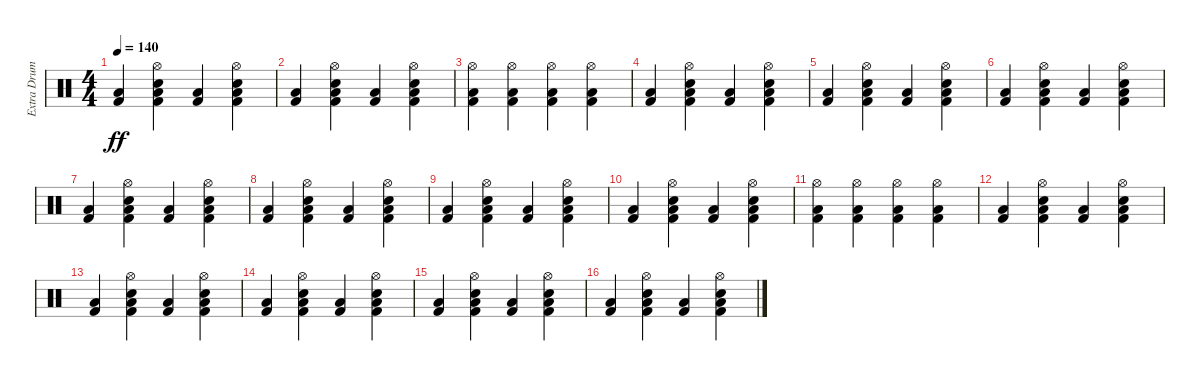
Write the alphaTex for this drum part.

\track ("Extra Drums" "Extra Drum") {instrument percussion}
\staff {score}
\articulation defaults
\ts (4 4)
\tempo 140
\clef neutral
\ks c
("Low Floor Tom (hit)" "Kick (hit) 2").4{dy ff} ("Hi-Hat (open)" "Electric Snare (hit)" "Low Floor Tom (hit)" "Kick (hit) 2").4 ("Low Floor Tom (hit)" "Kick (hit) 2").4 ("Hi-Hat (open)" "Electric Snare (hit)" "Low Floor Tom (hit)" "Kick (hit) 2").4 |
("Low Floor Tom (hit)" "Kick (hit) 2").4 ("Hi-Hat (open)" "Electric Snare (hit)" "Low Floor Tom (hit)" "Kick (hit) 2").4 ("Low Floor Tom (hit)" "Kick (hit) 2").4 ("Hi-Hat (open)" "Electric Snare (hit)" "Low Floor Tom (hit)" "Kick (hit) 2").4 |
("Hi-Hat (open)" "Low Floor Tom (hit)" "Kick (hit) 2").4 ("Hi-Hat (open)" "Low Floor Tom (hit)" "Kick (hit) 2").4 ("Hi-Hat (open)" "Low Floor Tom (hit)" "Kick (hit) 2").4 ("Hi-Hat (open)" "Low Floor Tom (hit)" "Kick (hit) 2").4 |
("Low Floor Tom (hit)" "Kick (hit) 2").4 ("Hi-Hat (open)" "Electric Snare (hit)" "Low Floor Tom (hit)" "Kick (hit) 2").4 ("Low Floor Tom (hit)" "Kick (hit) 2").4 ("Hi-Hat (open)" "Electric Snare (hit)" "Low Floor Tom (hit)" "Kick (hit) 2").4 |
("Low Floor Tom (hit)" "Kick (hit) 2").4 ("Hi-Hat (open)" "Electric Snare (hit)" "Low Floor Tom (hit)" "Kick (hit) 2").4 ("Low Floor Tom (hit)" "Kick (hit) 2").4 ("Hi-Hat (open)" "Electric Snare (hit)" "Low Floor Tom (hit)" "Kick (hit) 2").4 |
("Low Floor Tom (hit)" "Kick (hit) 2").4 ("Hi-Hat (open)" "Electric Snare (hit)" "Low Floor Tom (hit)" "Kick (hit) 2").4 ("Low Floor Tom (hit)" "Kick (hit) 2").4 ("Hi-Hat (open)" "Electric Snare (hit)" "Low Floor Tom (hit)" "Kick (hit) 2").4 |
("Low Floor Tom (hit)" "Kick (hit) 2").4 ("Hi-Hat (open)" "Electric Snare (hit)" "Low Floor Tom (hit)" "Kick (hit) 2").4 ("Low Floor Tom (hit)" "Kick (hit) 2").4 ("Hi-Hat (open)" "Electric Snare (hit)" "Low Floor Tom (hit)" "Kick (hit) 2").4 |
("Low Floor Tom (hit)" "Kick (hit) 2").4 ("Hi-Hat (open)" "Electric Snare (hit)" "Low Floor Tom (hit)" "Kick (hit) 2").4 ("Low Floor Tom (hit)" "Kick (hit) 2").4 ("Hi-Hat (open)" "Electric Snare (hit)" "Low Floor Tom (hit)" "Kick (hit) 2").4 |
("Low Floor Tom (hit)" "Kick (hit) 2").4 ("Hi-Hat (open)" "Electric Snare (hit)" "Low Floor Tom (hit)" "Kick (hit) 2").4 ("Low Floor Tom (hit)" "Kick (hit) 2").4 ("Hi-Hat (open)" "Electric Snare (hit)" "Low Floor Tom (hit)" "Kick (hit) 2").4 |
("Low Floor Tom (hit)" "Kick (hit) 2").4 ("Hi-Hat (open)" "Electric Snare (hit)" "Low Floor Tom (hit)" "Kick (hit) 2").4 ("Low Floor Tom (hit)" "Kick (hit) 2").4 ("Hi-Hat (open)" "Electric Snare (hit)" "Low Floor Tom (hit)" "Kick (hit) 2").4 |
("Hi-Hat (open)" "Low Floor Tom (hit)" "Kick (hit) 2").4 ("Hi-Hat (open)" "Low Floor Tom (hit)" "Kick (hit) 2").4 ("Hi-Hat (open)" "Low Floor Tom (hit)" "Kick (hit) 2").4 ("Hi-Hat (open)" "Low Floor Tom (hit)" "Kick (hit) 2").4 |
("Low Floor Tom (hit)" "Kick (hit) 2").4 ("Hi-Hat (open)" "Electric Snare (hit)" "Low Floor Tom (hit)" "Kick (hit) 2").4 ("Low Floor Tom (hit)" "Kick (hit) 2").4 ("Hi-Hat (open)" "Electric Snare (hit)" "Low Floor Tom (hit)" "Kick (hit) 2").4 |
("Low Floor Tom (hit)" "Kick (hit) 2").4 ("Hi-Hat (open)" "Electric Snare (hit)" "Low Floor Tom (hit)" "Kick (hit) 2").4 ("Low Floor Tom (hit)" "Kick (hit) 2").4 ("Hi-Hat (open)" "Electric Snare (hit)" "Low Floor Tom (hit)" "Kick (hit) 2").4 |
("Low Floor Tom (hit)" "Kick (hit) 2").4 ("Hi-Hat (open)" "Electric Snare (hit)" "Low Floor Tom (hit)" "Kick (hit) 2").4 ("Low Floor Tom (hit)" "Kick (hit) 2").4 ("Hi-Hat (open)" "Electric Snare (hit)" "Low Floor Tom (hit)" "Kick (hit) 2").4 |
("Low Floor Tom (hit)" "Kick (hit) 2").4 ("Hi-Hat (open)" "Electric Snare (hit)" "Low Floor Tom (hit)" "Kick (hit) 2").4 ("Low Floor Tom (hit)" "Kick (hit) 2").4 ("Hi-Hat (open)" "Electric Snare (hit)" "Low Floor Tom (hit)" "Kick (hit) 2").4 |
("Low Floor Tom (hit)" "Kick (hit) 2").4 ("Hi-Hat (open)" "Electric Snare (hit)" "Low Floor Tom (hit)" "Kick (hit) 2").4 ("Low Floor Tom (hit)" "Kick (hit) 2").4 ("Hi-Hat (open)" "Electric Snare (hit)" "Low Floor Tom (hit)" "Kick (hit) 2").4
